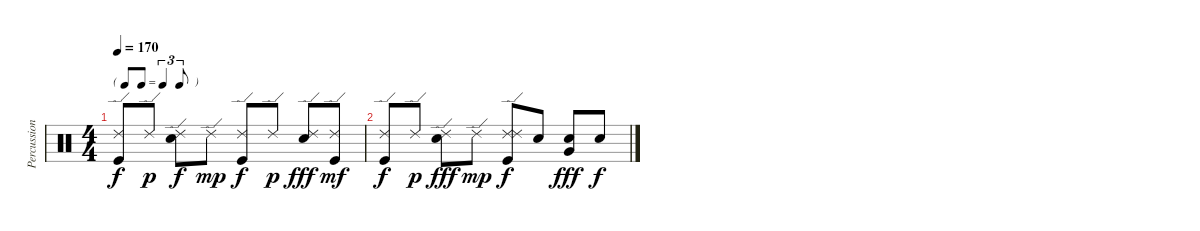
\track ("Percussion" "Percussion") {instrument percussion}
\staff {score}
\articulation defaults
\ts (4 4)
\tf triplet8th
\tempo 170
\clef neutral
\ks c
("Ride (edge) 2" "Kick (hit)").8{dy f} "Ride (edge) 2".8{dy p} ("Ride (edge) 2" "Snare (hit) 2").8{dy f} "Ride (edge) 2".8{dy mp} ("Ride (edge) 2" "Kick (hit)").8{dy f} "Ride (edge) 2".8{dy p} ("Ride (edge) 2" "Snare (hit) 2").8{dy fff} ("Ride (edge) 2" "Kick (hit)").8{dy mf} |
("Ride (edge) 2" "Kick (hit)").8{dy f volume 6} "Ride (edge) 2".8{dy p volume 6} ("Ride (edge) 2" "Snare (hit) 2").8{dy fff volume 6} "Ride (edge) 2".8{dy mp volume 5} ("Ride (edge) 2" "Ride (edge) 2" "Kick (hit)").8{dy f volume 5} "Snare (hit) 2".8{volume 4} ("Very Low Tom (hit)" "Snare (hit) 2").8{dy fff volume 4} "Snare (hit) 2".8{dy f volume 4}
